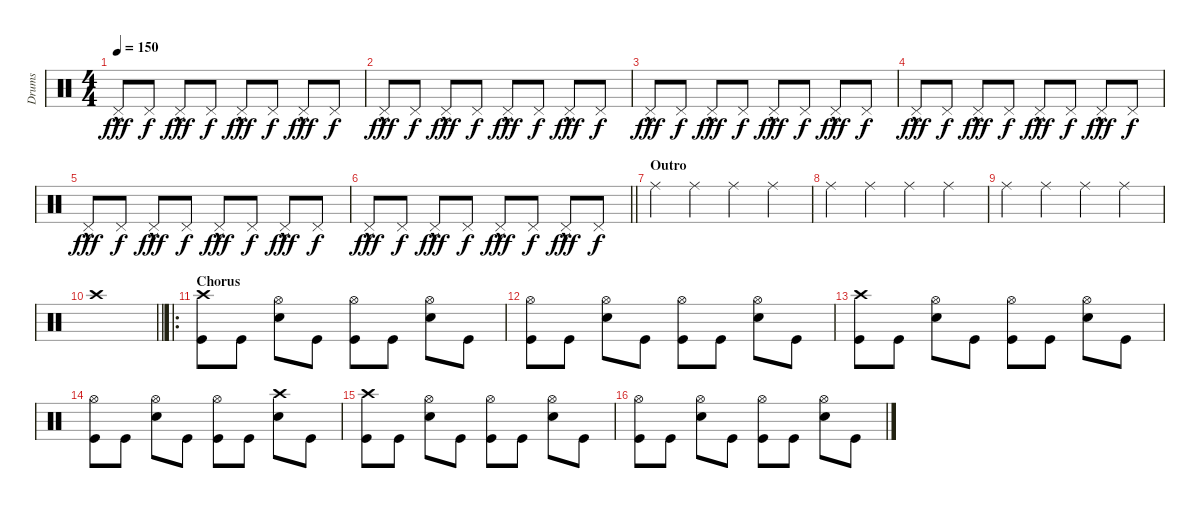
\track ("Drums" "Drums") {instrument percussion}
\staff {score}
\articulation defaults
\ts (4 4)
\tempo 150
\clef neutral
\ks c "Pedal Hi-Hat (hit)"{hac}.8{dy fff} "Pedal Hi-Hat (hit)".8{dy f} "Pedal Hi-Hat (hit)"{hac}.8{dy fff} "Pedal Hi-Hat (hit)".8{dy f} "Pedal Hi-Hat (hit)"{hac}.8{dy fff} "Pedal Hi-Hat (hit)".8{dy f} "Pedal Hi-Hat (hit)"{hac}.8{dy fff} "Pedal Hi-Hat (hit)".8{dy f}
|
"Pedal Hi-Hat (hit)"{hac}.8{dy fff} "Pedal Hi-Hat (hit)".8{dy f} "Pedal Hi-Hat (hit)"{hac}.8{dy fff} "Pedal Hi-Hat (hit)".8{dy f} "Pedal Hi-Hat (hit)"{hac}.8{dy fff} "Pedal Hi-Hat (hit)".8{dy f} "Pedal Hi-Hat (hit)"{hac}.8{dy fff} "Pedal Hi-Hat (hit)".8{dy f} |
"Pedal Hi-Hat (hit)"{hac}.8{dy fff} "Pedal Hi-Hat (hit)".8{dy f} "Pedal Hi-Hat (hit)"{hac}.8{dy fff} "Pedal Hi-Hat (hit)".8{dy f} "Pedal Hi-Hat (hit)"{hac}.8{dy fff} "Pedal Hi-Hat (hit)".8{dy f} "Pedal Hi-Hat (hit)"{hac}.8{dy fff} "Pedal Hi-Hat (hit)".8{dy f} |
"Pedal Hi-Hat (hit)"{hac}.8{dy fff} "Pedal Hi-Hat (hit)".8{dy f} "Pedal Hi-Hat (hit)"{hac}.8{dy fff} "Pedal Hi-Hat (hit)".8{dy f} "Pedal Hi-Hat (hit)"{hac}.8{dy fff} "Pedal Hi-Hat (hit)".8{dy f} "Pedal Hi-Hat (hit)"{hac}.8{dy fff} "Pedal Hi-Hat (hit)".8{dy f} |
"Pedal Hi-Hat (hit)"{hac}.8{dy fff} "Pedal Hi-Hat (hit)".8{dy f} "Pedal Hi-Hat (hit)"{hac}.8{dy fff} "Pedal Hi-Hat (hit)".8{dy f} "Pedal Hi-Hat (hit)"{hac}.8{dy fff} "Pedal Hi-Hat (hit)".8{dy f} "Pedal Hi-Hat (hit)"{hac}.8{dy fff} "Pedal Hi-Hat (hit)".8{dy f} |
\barLineRight lightlight "Pedal Hi-Hat (hit)"{hac}.8{dy fff} "Pedal Hi-Hat (hit)".8{dy f} "Pedal Hi-Hat (hit)"{hac}.8{dy fff} "Pedal Hi-Hat (hit)".8{dy f} "Pedal Hi-Hat (hit)"{hac}.8{dy fff} "Pedal Hi-Hat (hit)".8{dy f} "Pedal Hi-Hat (hit)"{hac}.8{dy fff} "Pedal Hi-Hat (hit)".8{dy f}
|
\section ("" "Outro")
"Ride (middle)".4 "Ride (middle)".4 "Ride (middle)".4 "Ride (middle)".4 |
"Ride (middle)".4 "Ride (middle)".4 "Ride (middle)".4 "Ride (middle)".4 |
"Ride (middle)".4 "Ride (middle)".4 "Ride (middle)".4 "Ride (middle)".4 |
\barLineRight lightlight "Crash high (hit)".1
|
\ro
\section ("" "Chorus")
("Crash high (hit)" "Kick (hit)").8 "Kick (hit)".8 ("Electric Snare (hit)" "Hi-Hat (open)").8 "Kick (hit)".8 ("Kick (hit)" "Hi-Hat (open)").8 "Kick (hit)".8 ("Electric Snare (hit)" "Hi-Hat (open)").8 "Kick (hit)".8 |
("Kick (hit)" "Hi-Hat (open)").8 "Kick (hit)".8 ("Electric Snare (hit)" "Hi-Hat (open)").8 "Kick (hit)".8 ("Kick (hit)" "Hi-Hat (open)").8 "Kick (hit)".8 ("Electric Snare (hit)" "Hi-Hat (open)").8 "Kick (hit)".8 |
("Crash high (hit)" "Kick (hit)").8 "Kick (hit)".8 ("Electric Snare (hit)" "Hi-Hat (open)").8 "Kick (hit)".8 ("Kick (hit)" "Hi-Hat (open)").8 "Kick (hit)".8 ("Electric Snare (hit)" "Hi-Hat (open)").8 "Kick (hit)".8 |
("Kick (hit)" "Hi-Hat (open)").8 "Kick (hit)".8 ("Electric Snare (hit)" "Hi-Hat (open)").8 "Kick (hit)".8 ("Kick (hit)" "Hi-Hat (open)").8 "Kick (hit)".8 ("Crash high (hit)" "Electric Snare (hit)").8 "Kick (hit)".8 |
("Crash high (hit)" "Kick (hit)").8 "Kick (hit)".8 ("Electric Snare (hit)" "Hi-Hat (open)").8 "Kick (hit)".8 ("Kick (hit)" "Hi-Hat (open)").8 "Kick (hit)".8 ("Electric Snare (hit)" "Hi-Hat (open)").8 "Kick (hit)".8 |
("Kick (hit)" "Hi-Hat (open)").8 "Kick (hit)".8 ("Electric Snare (hit)" "Hi-Hat (open)").8 "Kick (hit)".8 ("Kick (hit)" "Hi-Hat (open)").8 "Kick (hit)".8 ("Electric Snare (hit)" "Hi-Hat (open)").8 "Kick (hit)".8
